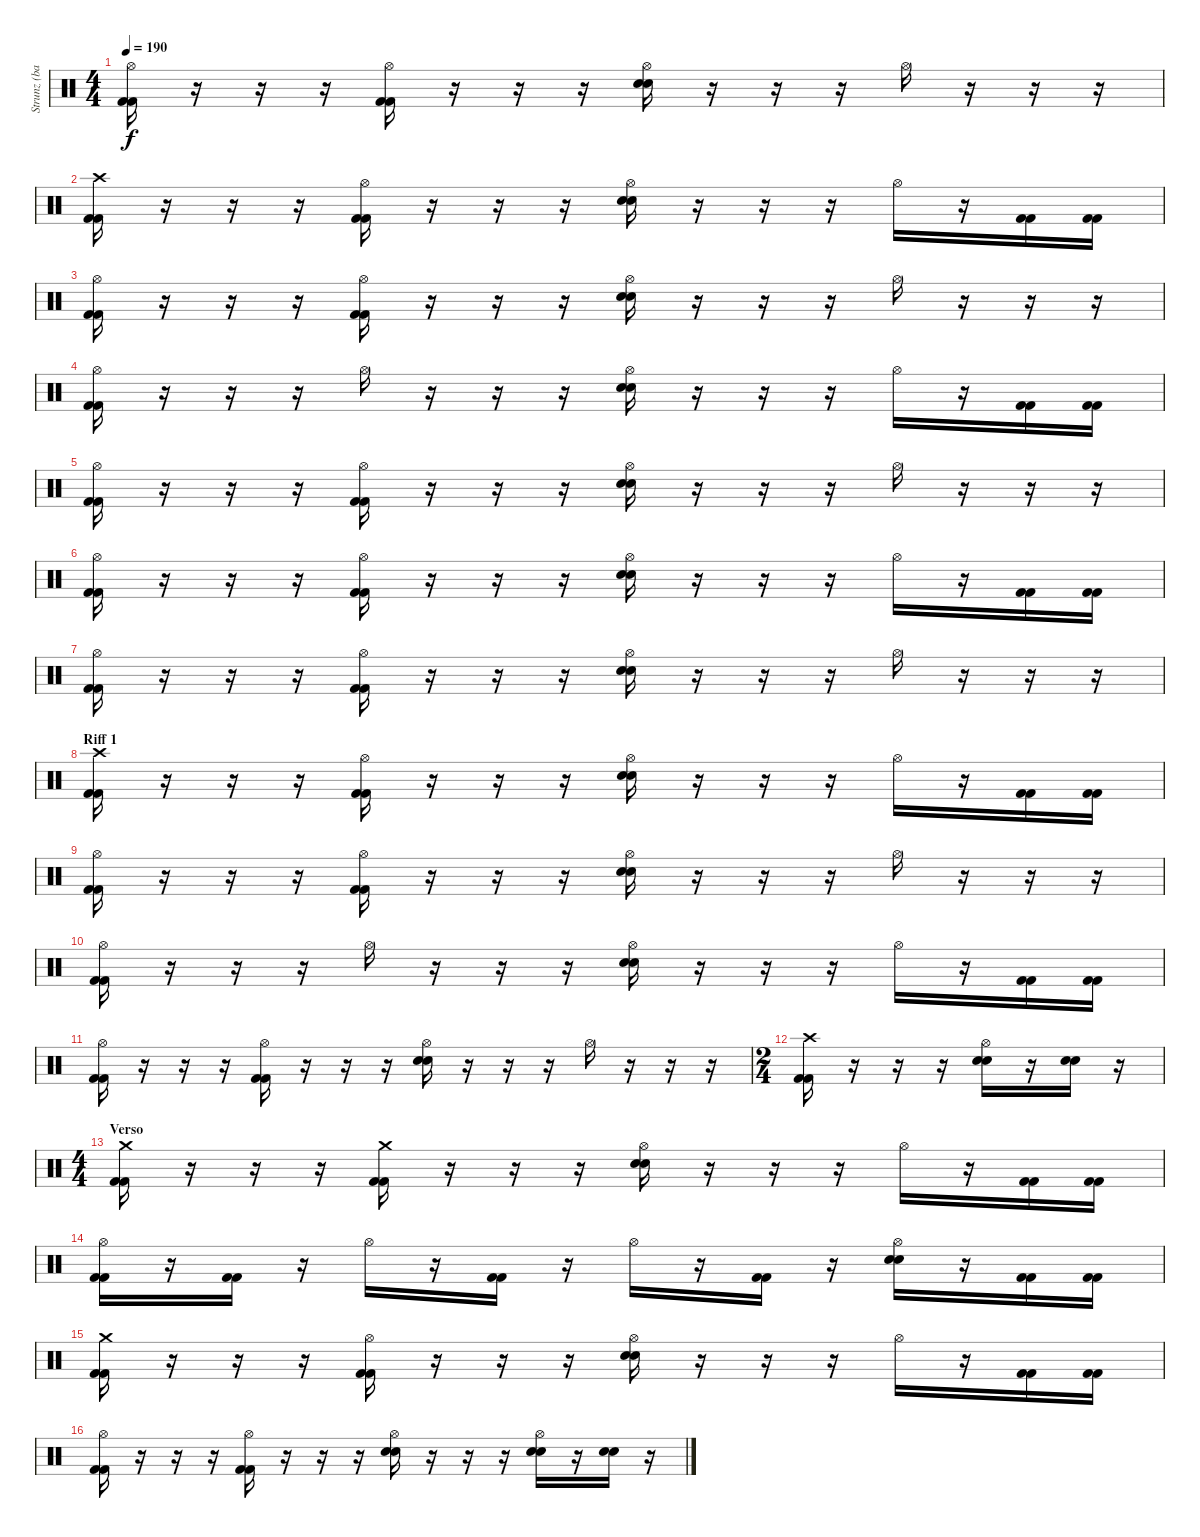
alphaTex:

\track ("Strunz (bateria)" "Strunz (ba") {instrument percussion}
\staff {score}
\articulation defaults
\ts (4 4)
\tempo 190
\clef neutral
\ks c
("Hi-Hat (open)" "Kick (hit) 2" "Kick (hit) 2").16{dy f} r.16 r.16 r.16 ("Hi-Hat (open)" "Kick (hit) 2" "Kick (hit) 2").16 r.16 r.16 r.16 ("Hi-Hat (open)" "Snare (hit) 2" "Snare (hit) 2").16 r.16 r.16 r.16 "Hi-Hat (open)".16 r.16 r.16 r.16 |
("Crash high (hit)" "Kick (hit) 2" "Kick (hit) 2").16 r.16 r.16 r.16 ("Hi-Hat (open)" "Kick (hit) 2" "Kick (hit) 2").16 r.16 r.16 r.16 ("Hi-Hat (open)" "Snare (hit) 2" "Snare (hit) 2").16 r.16 r.16 r.16 "Hi-Hat (open)".16 r.16 ("Kick (hit) 2" "Kick (hit) 2").16 ("Kick (hit) 2" "Kick (hit) 2").16 |
("Hi-Hat (open)" "Kick (hit) 2" "Kick (hit) 2").16 r.16 r.16 r.16 ("Hi-Hat (open)" "Kick (hit) 2" "Kick (hit) 2").16 r.16 r.16 r.16 ("Hi-Hat (open)" "Snare (hit) 2" "Snare (hit) 2").16 r.16 r.16 r.16 "Hi-Hat (open)".16 r.16 r.16 r.16 |
("Hi-Hat (open)" "Kick (hit) 2" "Kick (hit) 2").16 r.16 r.16 r.16 "Hi-Hat (open)".16 r.16 r.16 r.16 ("Hi-Hat (open)" "Snare (hit) 2" "Snare (hit) 2").16 r.16 r.16 r.16 "Hi-Hat (open)".16 r.16 ("Kick (hit) 2" "Kick (hit) 2").16 ("Kick (hit) 2" "Kick (hit) 2").16 |
("Hi-Hat (open)" "Kick (hit) 2" "Kick (hit) 2").16 r.16 r.16 r.16 ("Hi-Hat (open)" "Kick (hit) 2" "Kick (hit) 2").16 r.16 r.16 r.16 ("Hi-Hat (open)" "Snare (hit) 2" "Snare (hit) 2").16 r.16 r.16 r.16 "Hi-Hat (open)".16 r.16 r.16 r.16 |
("Hi-Hat (open)" "Kick (hit) 2" "Kick (hit) 2").16 r.16 r.16 r.16 ("Hi-Hat (open)" "Kick (hit) 2" "Kick (hit) 2").16 r.16 r.16 r.16 ("Hi-Hat (open)" "Snare (hit) 2" "Snare (hit) 2").16 r.16 r.16 r.16 "Hi-Hat (open)".16 r.16 ("Kick (hit) 2" "Kick (hit) 2").16 ("Kick (hit) 2" "Kick (hit) 2").16 |
("Hi-Hat (open)" "Kick (hit) 2" "Kick (hit) 2").16 r.16 r.16 r.16 ("Hi-Hat (open)" "Kick (hit) 2" "Kick (hit) 2").16 r.16 r.16 r.16 ("Hi-Hat (open)" "Snare (hit) 2" "Snare (hit) 2").16 r.16 r.16 r.16 "Hi-Hat (open)".16 r.16 r.16 r.16 |
\section ("" "Riff 1")
("Crash high (hit)" "Kick (hit) 2" "Kick (hit) 2").16 r.16 r.16 r.16 ("Hi-Hat (open)" "Kick (hit) 2" "Kick (hit) 2").16 r.16 r.16 r.16 ("Hi-Hat (open)" "Snare (hit) 2" "Snare (hit) 2").16 r.16 r.16 r.16 "Hi-Hat (open)".16 r.16 ("Kick (hit) 2" "Kick (hit) 2").16 ("Kick (hit) 2" "Kick (hit) 2").16 |
("Hi-Hat (open)" "Kick (hit) 2" "Kick (hit) 2").16 r.16 r.16 r.16 ("Hi-Hat (open)" "Kick (hit) 2" "Kick (hit) 2").16 r.16 r.16 r.16 ("Hi-Hat (open)" "Snare (hit) 2" "Snare (hit) 2").16 r.16 r.16 r.16 "Hi-Hat (open)".16 r.16 r.16 r.16 |
("Hi-Hat (open)" "Kick (hit) 2" "Kick (hit) 2").16 r.16 r.16 r.16 "Hi-Hat (open)".16 r.16 r.16 r.16 ("Hi-Hat (open)" "Snare (hit) 2" "Snare (hit) 2").16 r.16 r.16 r.16 "Hi-Hat (open)".16 r.16 ("Kick (hit) 2" "Kick (hit) 2").16 ("Kick (hit) 2" "Kick (hit) 2").16 |
("Hi-Hat (open)" "Kick (hit) 2" "Kick (hit) 2").16 r.16 r.16 r.16 ("Hi-Hat (open)" "Kick (hit) 2" "Kick (hit) 2").16 r.16 r.16 r.16 ("Hi-Hat (open)" "Snare (hit) 2" "Snare (hit) 2").16 r.16 r.16 r.16 "Hi-Hat (open)".16 r.16 r.16 r.16 |
\ts (2 4)
("Crash high (hit)" "Kick (hit) 2" "Kick (hit) 2").16 r.16 r.16 r.16 ("Hi-Hat (open)" "Snare (hit) 2" "Snare (hit) 2").16 r.16 ("Snare (hit) 2" "Snare (hit) 2").16 r.16 |
\ts (4 4)
\section ("" "Verso")
("Crash medium (hit)" "Kick (hit) 2" "Kick (hit) 2").16 r.16 r.16 r.16 ("Crash medium (hit)" "Kick (hit) 2" "Kick (hit) 2").16 r.16 r.16 r.16 ("Hi-Hat (open)" "Snare (hit) 2" "Snare (hit) 2").16 r.16 r.16 r.16 "Hi-Hat (open)".16 r.16 ("Kick (hit) 2" "Kick (hit) 2").16 ("Kick (hit) 2" "Kick (hit) 2").16 |
("Hi-Hat (open)" "Kick (hit) 2" "Kick (hit) 2").16 r.16 ("Kick (hit) 2" "Kick (hit) 2").16 r.16 "Hi-Hat (open)".16 r.16 ("Kick (hit) 2" "Kick (hit) 2").16 r.16 "Hi-Hat (open)".16 r.16 ("Kick (hit) 2" "Kick (hit) 2").16 r.16 ("Hi-Hat (open)" "Snare (hit) 2" "Snare (hit) 2").16 r.16 ("Kick (hit) 2" "Kick (hit) 2").16 ("Kick (hit) 2" "Kick (hit) 2").16 |
("Crash medium (hit)" "Kick (hit) 2" "Kick (hit) 2").16 r.16 r.16 r.16 ("Hi-Hat (open)" "Kick (hit) 2" "Kick (hit) 2").16 r.16 r.16 r.16 ("Hi-Hat (open)" "Snare (hit) 2" "Snare (hit) 2").16 r.16 r.16 r.16 "Hi-Hat (open)".16 r.16 ("Kick (hit) 2" "Kick (hit) 2").16 ("Kick (hit) 2" "Kick (hit) 2").16 |
("Hi-Hat (open)" "Kick (hit) 2" "Kick (hit) 2").16 r.16 r.16 r.16 ("Hi-Hat (open)" "Kick (hit) 2" "Kick (hit) 2").16 r.16 r.16 r.16 ("Hi-Hat (open)" "Snare (hit) 2" "Snare (hit) 2").16 r.16 r.16 r.16 ("Hi-Hat (open)" "Snare (hit) 2" "Snare (hit) 2").16 r.16 ("Snare (hit) 2" "Snare (hit) 2").16 r.16
